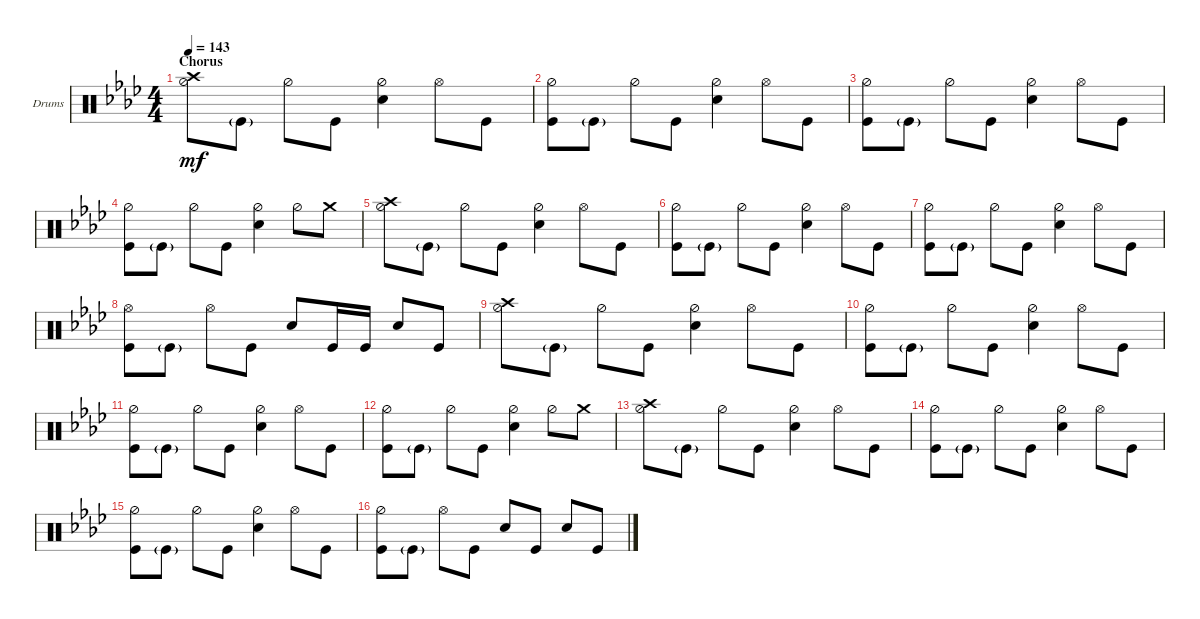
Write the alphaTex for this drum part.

\defaultSystemsLayout 4
\bracketExtendMode groupsimilarinstruments
\firstSystemTrackNameOrientation horizontal
\otherSystemsTrackNameOrientation horizontal
\track ("Drumkit" "Drums") {instrument percussion}
\staff {score}
\articulation defaults
\ts (4 4)
\section ("" "Chorus")
\tempo 143
\clef neutral
\ks fminor
("Crash high (hit)" "Hi-Hat (half)").8{dy mf} "Kick (hit)"{g}.8 "Hi-Hat (half)".8 "Kick (hit)".8 ("Snare (hit) 2" "Hi-Hat (half)").4 "Hi-Hat (open)".8 "Kick (hit)".8 |
("Kick (hit)" "Hi-Hat (half)").8 "Kick (hit)"{g}.8 "Hi-Hat (half)".8 "Kick (hit)".8 ("Snare (hit) 2" "Hi-Hat (half)").4 "Hi-Hat (open)".8 "Kick (hit)".8 |
("Kick (hit)" "Hi-Hat (half)").8 "Kick (hit)"{g}.8 "Hi-Hat (half)".8 "Kick (hit)".8 ("Snare (hit) 2" "Hi-Hat (half)").4 "Hi-Hat (open)".8 "Kick (hit)".8 |
("Kick (hit)" "Hi-Hat (half)").8 "Kick (hit)"{g}.8 "Hi-Hat (half)".8 "Kick (hit)".8 ("Snare (hit) 2" "Hi-Hat (half)").4 "Hi-Hat (half)".8 "Crash medium (hit)".8 |
("Crash high (hit)" "Hi-Hat (half)").8 "Kick (hit)"{g}.8 "Hi-Hat (half)".8 "Kick (hit)".8 ("Snare (hit) 2" "Hi-Hat (half)").4 "Hi-Hat (open)".8 "Kick (hit)".8 |
("Kick (hit)" "Hi-Hat (half)").8 "Kick (hit)"{g}.8 "Hi-Hat (half)".8 "Kick (hit)".8 ("Snare (hit) 2" "Hi-Hat (half)").4 "Hi-Hat (open)".8 "Kick (hit)".8 |
("Kick (hit)" "Hi-Hat (half)").8 "Kick (hit)"{g}.8 "Hi-Hat (half)".8 "Kick (hit)".8 ("Snare (hit) 2" "Hi-Hat (half)").4 "Hi-Hat (open)".8 "Kick (hit)".8 |
("Kick (hit)" "Hi-Hat (open)").8 "Kick (hit)"{g}.8 "Hi-Hat (open)".8 "Kick (hit)".8 "Snare (hit) 2".8 "Kick (hit)".16 "Kick (hit)".16 "Snare (hit) 2".8 "Kick (hit)".8 |
("Crash high (hit)" "Hi-Hat (half)").8 "Kick (hit)"{g}.8 "Hi-Hat (half)".8 "Kick (hit)".8 ("Snare (hit) 2" "Hi-Hat (half)").4 "Hi-Hat (open)".8 "Kick (hit)".8 |
("Kick (hit)" "Hi-Hat (half)").8 "Kick (hit)"{g}.8 "Hi-Hat (half)".8 "Kick (hit)".8 ("Snare (hit) 2" "Hi-Hat (half)").4 "Hi-Hat (open)".8 "Kick (hit)".8 |
("Kick (hit)" "Hi-Hat (half)").8 "Kick (hit)"{g}.8 "Hi-Hat (half)".8 "Kick (hit)".8 ("Snare (hit) 2" "Hi-Hat (half)").4 "Hi-Hat (open)".8 "Kick (hit)".8 |
("Kick (hit)" "Hi-Hat (half)").8 "Kick (hit)"{g}.8 "Hi-Hat (half)".8 "Kick (hit)".8 ("Snare (hit) 2" "Hi-Hat (half)").4 "Hi-Hat (half)".8 "Crash medium (hit)".8 |
("Crash high (hit)" "Hi-Hat (half)").8 "Kick (hit)"{g}.8 "Hi-Hat (half)".8 "Kick (hit)".8 ("Snare (hit) 2" "Hi-Hat (half)").4 "Hi-Hat (open)".8 "Kick (hit)".8 |
("Kick (hit)" "Hi-Hat (half)").8 "Kick (hit)"{g}.8 "Hi-Hat (half)".8 "Kick (hit)".8 ("Snare (hit) 2" "Hi-Hat (half)").4 "Hi-Hat (open)".8 "Kick (hit)".8 |
("Kick (hit)" "Hi-Hat (half)").8 "Kick (hit)"{g}.8 "Hi-Hat (half)".8 "Kick (hit)".8 ("Snare (hit) 2" "Hi-Hat (half)").4 "Hi-Hat (open)".8 "Kick (hit)".8 |
("Kick (hit)" "Hi-Hat (half)").8 "Kick (hit)"{g}.8 "Hi-Hat (open)".8 "Kick (hit)".8 "Snare (hit) 2".8 "Kick (hit)".8 "Snare (hit) 2".8 "Kick (hit)".8
